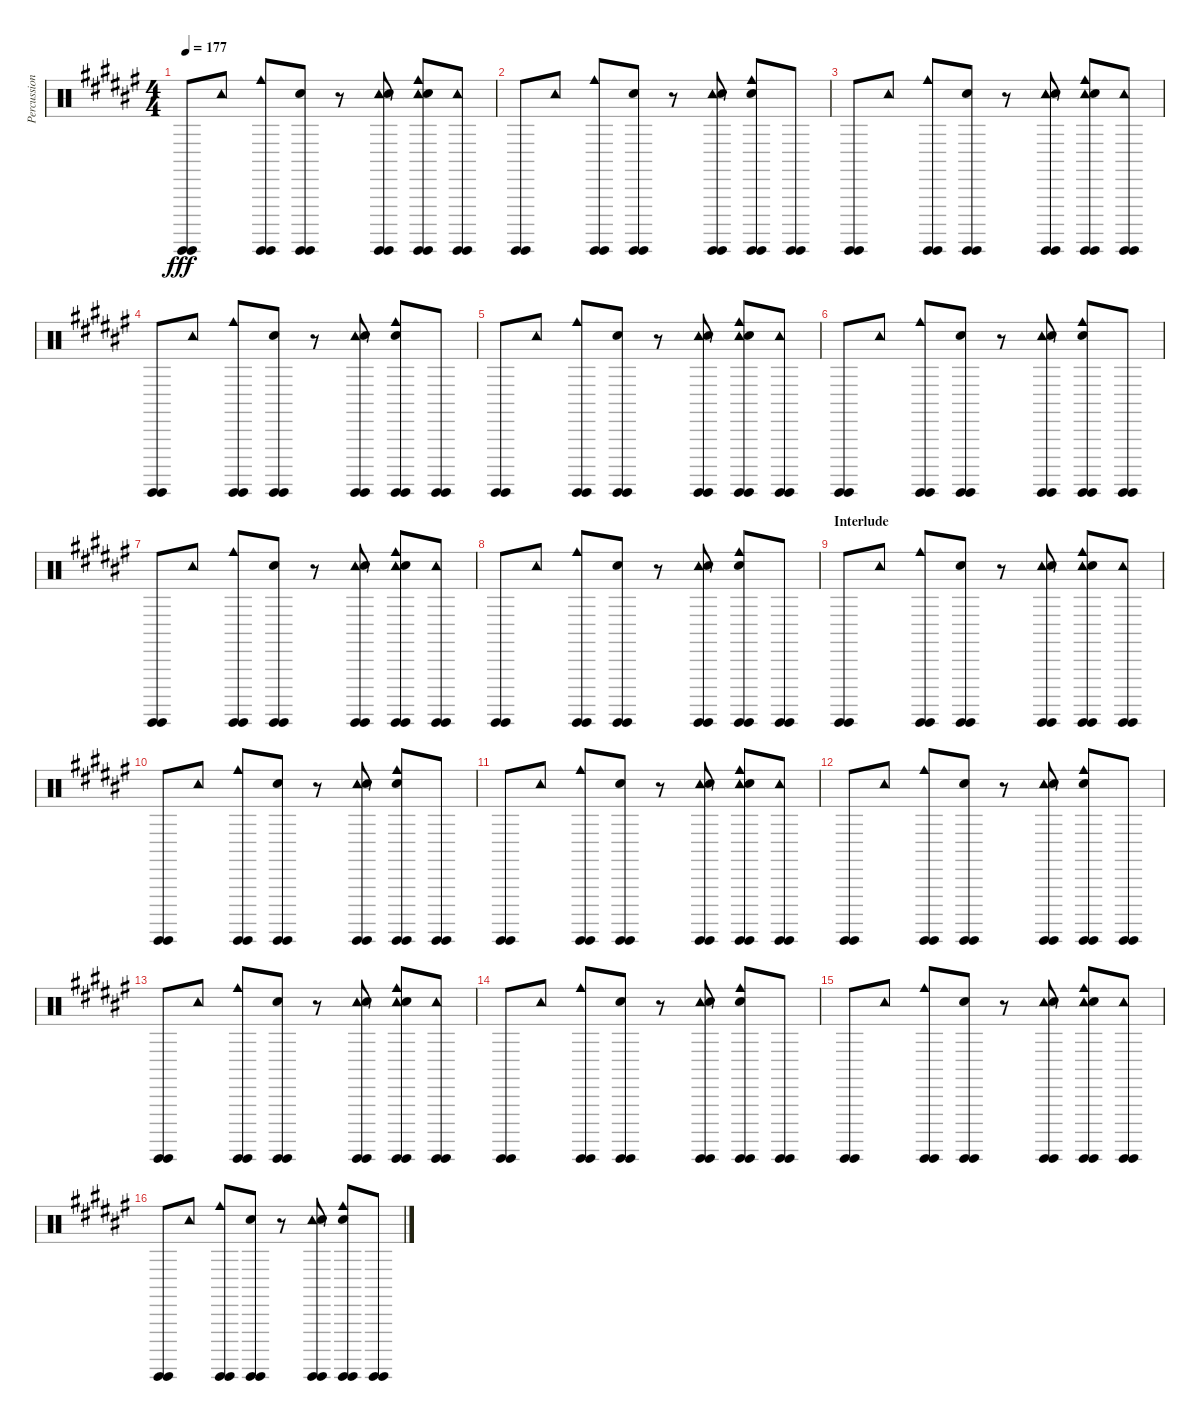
\track ("Percussion" "Percussion") {instrument percussion}
\staff {score}
\articulation defaults
\ts (4 4)
\tempo 177
\clef neutral
\ks d#minor
("Guiro (hit)" "Guiro (hit)").8{dy fff} "Tambourine (hit)".8 ("Cowbell medium (hit)" "Guiro (hit)" "Guiro (hit)").8 ("Guiro (hit)" "Guiro (hit)" "Hand Clap (hit)").8 r.8 ("Tambourine (hit)" "Guiro (hit)" "Guiro (hit)" "Hand Clap (hit)").8 ("Cowbell medium (hit)" "Tambourine (hit)" "Guiro (hit)" "Guiro (hit)" "Hand Clap (hit)").8 ("Tambourine (hit)" "Guiro (hit)" "Guiro (hit)").8 |
("Guiro (hit)" "Guiro (hit)").8 "Tambourine (hit)".8 ("Cowbell medium (hit)" "Guiro (hit)" "Guiro (hit)").8 ("Guiro (hit)" "Guiro (hit)" "Hand Clap (hit)").8 r.8 ("Tambourine (hit)" "Guiro (hit)" "Guiro (hit)" "Hand Clap (hit)").8 ("Cowbell medium (hit)" "Guiro (hit)" "Guiro (hit)" "Hand Clap (hit)").8 ("Guiro (hit)" "Guiro (hit)").8 |
("Guiro (hit)" "Guiro (hit)").8 "Tambourine (hit)".8 ("Cowbell medium (hit)" "Guiro (hit)" "Guiro (hit)").8 ("Guiro (hit)" "Guiro (hit)" "Hand Clap (hit)").8 r.8 ("Tambourine (hit)" "Guiro (hit)" "Guiro (hit)" "Hand Clap (hit)").8 ("Cowbell medium (hit)" "Tambourine (hit)" "Guiro (hit)" "Guiro (hit)" "Hand Clap (hit)").8 ("Tambourine (hit)" "Guiro (hit)" "Guiro (hit)").8 |
("Guiro (hit)" "Guiro (hit)").8 "Tambourine (hit)".8 ("Cowbell medium (hit)" "Guiro (hit)" "Guiro (hit)").8 ("Guiro (hit)" "Guiro (hit)" "Hand Clap (hit)").8 r.8 ("Tambourine (hit)" "Guiro (hit)" "Guiro (hit)" "Hand Clap (hit)").8 ("Cowbell medium (hit)" "Guiro (hit)" "Guiro (hit)" "Hand Clap (hit)").8 ("Guiro (hit)" "Guiro (hit)").8 |
("Guiro (hit)" "Guiro (hit)").8 "Tambourine (hit)".8 ("Cowbell medium (hit)" "Guiro (hit)" "Guiro (hit)").8 ("Guiro (hit)" "Guiro (hit)" "Hand Clap (hit)").8 r.8 ("Tambourine (hit)" "Guiro (hit)" "Guiro (hit)" "Hand Clap (hit)").8 ("Cowbell medium (hit)" "Tambourine (hit)" "Guiro (hit)" "Guiro (hit)" "Hand Clap (hit)").8 ("Tambourine (hit)" "Guiro (hit)" "Guiro (hit)").8 |
("Guiro (hit)" "Guiro (hit)").8 "Tambourine (hit)".8 ("Cowbell medium (hit)" "Guiro (hit)" "Guiro (hit)").8 ("Guiro (hit)" "Guiro (hit)" "Hand Clap (hit)").8 r.8 ("Tambourine (hit)" "Guiro (hit)" "Guiro (hit)" "Hand Clap (hit)").8 ("Cowbell medium (hit)" "Guiro (hit)" "Guiro (hit)" "Hand Clap (hit)").8 ("Guiro (hit)" "Guiro (hit)").8 |
("Guiro (hit)" "Guiro (hit)").8 "Tambourine (hit)".8 ("Cowbell medium (hit)" "Guiro (hit)" "Guiro (hit)").8 ("Guiro (hit)" "Guiro (hit)" "Hand Clap (hit)").8 r.8 ("Tambourine (hit)" "Guiro (hit)" "Guiro (hit)" "Hand Clap (hit)").8 ("Cowbell medium (hit)" "Tambourine (hit)" "Guiro (hit)" "Guiro (hit)" "Hand Clap (hit)").8 ("Tambourine (hit)" "Guiro (hit)" "Guiro (hit)").8 |
("Guiro (hit)" "Guiro (hit)").8 "Tambourine (hit)".8 ("Cowbell medium (hit)" "Guiro (hit)" "Guiro (hit)").8 ("Guiro (hit)" "Guiro (hit)" "Hand Clap (hit)").8 r.8 ("Tambourine (hit)" "Guiro (hit)" "Guiro (hit)" "Hand Clap (hit)").8 ("Cowbell medium (hit)" "Guiro (hit)" "Guiro (hit)" "Hand Clap (hit)").8 ("Guiro (hit)" "Guiro (hit)").8 |
\section ("" "Interlude")
("Guiro (hit)" "Guiro (hit)").8 "Tambourine (hit)".8 ("Cowbell medium (hit)" "Guiro (hit)" "Guiro (hit)").8 ("Guiro (hit)" "Guiro (hit)" "Hand Clap (hit)").8 r.8 ("Tambourine (hit)" "Guiro (hit)" "Guiro (hit)" "Hand Clap (hit)").8 ("Cowbell medium (hit)" "Tambourine (hit)" "Guiro (hit)" "Guiro (hit)" "Hand Clap (hit)").8 ("Tambourine (hit)" "Guiro (hit)" "Guiro (hit)").8 |
("Guiro (hit)" "Guiro (hit)").8 "Tambourine (hit)".8 ("Cowbell medium (hit)" "Guiro (hit)" "Guiro (hit)").8 ("Guiro (hit)" "Guiro (hit)" "Hand Clap (hit)").8 r.8 ("Tambourine (hit)" "Guiro (hit)" "Guiro (hit)" "Hand Clap (hit)").8 ("Cowbell medium (hit)" "Guiro (hit)" "Guiro (hit)" "Hand Clap (hit)").8 ("Guiro (hit)" "Guiro (hit)").8 |
("Guiro (hit)" "Guiro (hit)").8 "Tambourine (hit)".8 ("Cowbell medium (hit)" "Guiro (hit)" "Guiro (hit)").8 ("Guiro (hit)" "Guiro (hit)" "Hand Clap (hit)").8 r.8 ("Tambourine (hit)" "Guiro (hit)" "Guiro (hit)" "Hand Clap (hit)").8 ("Cowbell medium (hit)" "Tambourine (hit)" "Guiro (hit)" "Guiro (hit)" "Hand Clap (hit)").8 ("Tambourine (hit)" "Guiro (hit)" "Guiro (hit)").8 |
("Guiro (hit)" "Guiro (hit)").8 "Tambourine (hit)".8 ("Cowbell medium (hit)" "Guiro (hit)" "Guiro (hit)").8 ("Guiro (hit)" "Guiro (hit)" "Hand Clap (hit)").8 r.8 ("Tambourine (hit)" "Guiro (hit)" "Guiro (hit)" "Hand Clap (hit)").8 ("Cowbell medium (hit)" "Guiro (hit)" "Guiro (hit)" "Hand Clap (hit)").8 ("Guiro (hit)" "Guiro (hit)").8 |
("Guiro (hit)" "Guiro (hit)").8 "Tambourine (hit)".8 ("Cowbell medium (hit)" "Guiro (hit)" "Guiro (hit)").8 ("Guiro (hit)" "Guiro (hit)" "Hand Clap (hit)").8 r.8 ("Tambourine (hit)" "Guiro (hit)" "Guiro (hit)" "Hand Clap (hit)").8 ("Cowbell medium (hit)" "Tambourine (hit)" "Guiro (hit)" "Guiro (hit)" "Hand Clap (hit)").8 ("Tambourine (hit)" "Guiro (hit)" "Guiro (hit)").8 |
("Guiro (hit)" "Guiro (hit)").8 "Tambourine (hit)".8 ("Cowbell medium (hit)" "Guiro (hit)" "Guiro (hit)").8 ("Guiro (hit)" "Guiro (hit)" "Hand Clap (hit)").8 r.8 ("Tambourine (hit)" "Guiro (hit)" "Guiro (hit)" "Hand Clap (hit)").8 ("Cowbell medium (hit)" "Guiro (hit)" "Guiro (hit)" "Hand Clap (hit)").8 ("Guiro (hit)" "Guiro (hit)").8 |
("Guiro (hit)" "Guiro (hit)").8 "Tambourine (hit)".8 ("Cowbell medium (hit)" "Guiro (hit)" "Guiro (hit)").8 ("Guiro (hit)" "Guiro (hit)" "Hand Clap (hit)").8 r.8 ("Tambourine (hit)" "Guiro (hit)" "Guiro (hit)" "Hand Clap (hit)").8 ("Cowbell medium (hit)" "Tambourine (hit)" "Guiro (hit)" "Guiro (hit)" "Hand Clap (hit)").8 ("Tambourine (hit)" "Guiro (hit)" "Guiro (hit)").8 |
("Guiro (hit)" "Guiro (hit)").8 "Tambourine (hit)".8 ("Cowbell medium (hit)" "Guiro (hit)" "Guiro (hit)").8 ("Guiro (hit)" "Guiro (hit)" "Hand Clap (hit)").8 r.8 ("Tambourine (hit)" "Guiro (hit)" "Guiro (hit)" "Hand Clap (hit)").8 ("Cowbell medium (hit)" "Guiro (hit)" "Guiro (hit)" "Hand Clap (hit)").8 ("Guiro (hit)" "Guiro (hit)").8
